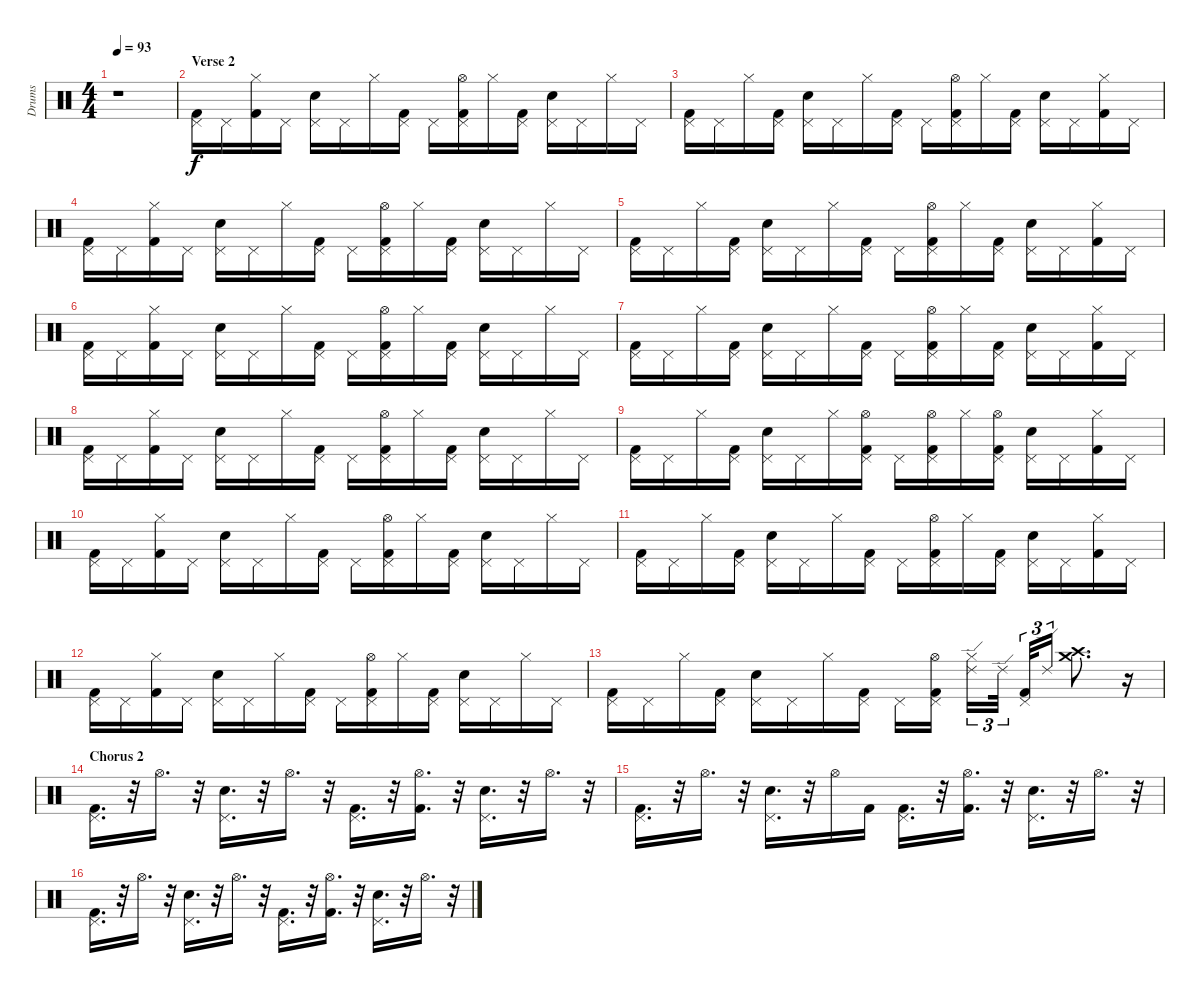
\track ("Drums" "Drums") {instrument percussion}
\staff {score}
\articulation defaults
\ts (4 4)
\tempo 93
\clef neutral
\ks c
r.1{dy f} |
\section ("" "Verse 2")
("Pedal Hi-Hat (hit)" "Kick (hit) 2").16 "Pedal Hi-Hat (hit)".16 ("Hi-Hat (closed)" "Kick (hit) 2").16 "Pedal Hi-Hat (hit)".16 ("Pedal Hi-Hat (hit)" "Snare (hit) 2").16 "Pedal Hi-Hat (hit)".16 "Hi-Hat (closed)".16 ("Pedal Hi-Hat (hit)" "Kick (hit) 2").16 "Pedal Hi-Hat (hit)".16 ("Pedal Hi-Hat (hit)" "Kick (hit) 2" "Hi-Hat (open)").16 "Hi-Hat (closed)".16 ("Pedal Hi-Hat (hit)" "Kick (hit) 2").16 ("Pedal Hi-Hat (hit)" "Snare (hit) 2").16 "Pedal Hi-Hat (hit)".16 "Hi-Hat (closed)".16 "Pedal Hi-Hat (hit)".16 |
("Pedal Hi-Hat (hit)" "Kick (hit) 2").16 "Pedal Hi-Hat (hit)".16 "Hi-Hat (closed)".16 ("Pedal Hi-Hat (hit)" "Kick (hit) 2").16 ("Pedal Hi-Hat (hit)" "Snare (hit) 2").16 "Pedal Hi-Hat (hit)".16 "Hi-Hat (closed)".16 ("Pedal Hi-Hat (hit)" "Kick (hit) 2").16 "Pedal Hi-Hat (hit)".16 ("Pedal Hi-Hat (hit)" "Kick (hit) 2" "Hi-Hat (open)").16 "Hi-Hat (closed)".16 ("Pedal Hi-Hat (hit)" "Kick (hit) 2").16 ("Pedal Hi-Hat (hit)" "Snare (hit) 2").16 "Pedal Hi-Hat (hit)".16 ("Hi-Hat (closed)" "Kick (hit) 2").16 "Pedal Hi-Hat (hit)".16 |
("Pedal Hi-Hat (hit)" "Kick (hit) 2").16 "Pedal Hi-Hat (hit)".16 ("Hi-Hat (closed)" "Kick (hit) 2").16 "Pedal Hi-Hat (hit)".16 ("Pedal Hi-Hat (hit)" "Snare (hit) 2").16 "Pedal Hi-Hat (hit)".16 "Hi-Hat (closed)".16 ("Pedal Hi-Hat (hit)" "Kick (hit) 2").16 "Pedal Hi-Hat (hit)".16 ("Pedal Hi-Hat (hit)" "Kick (hit) 2" "Hi-Hat (open)").16 "Hi-Hat (closed)".16 ("Pedal Hi-Hat (hit)" "Kick (hit) 2").16 ("Pedal Hi-Hat (hit)" "Snare (hit) 2").16 "Pedal Hi-Hat (hit)".16 "Hi-Hat (closed)".16 "Pedal Hi-Hat (hit)".16 |
("Pedal Hi-Hat (hit)" "Kick (hit) 2").16 "Pedal Hi-Hat (hit)".16 "Hi-Hat (closed)".16 ("Pedal Hi-Hat (hit)" "Kick (hit) 2").16 ("Pedal Hi-Hat (hit)" "Snare (hit) 2").16 "Pedal Hi-Hat (hit)".16 "Hi-Hat (closed)".16 ("Pedal Hi-Hat (hit)" "Kick (hit) 2").16 "Pedal Hi-Hat (hit)".16 ("Pedal Hi-Hat (hit)" "Kick (hit) 2" "Hi-Hat (open)").16 "Hi-Hat (closed)".16 ("Pedal Hi-Hat (hit)" "Kick (hit) 2").16 ("Pedal Hi-Hat (hit)" "Snare (hit) 2").16 "Pedal Hi-Hat (hit)".16 ("Hi-Hat (closed)" "Kick (hit) 2").16 "Pedal Hi-Hat (hit)".16 |
("Pedal Hi-Hat (hit)" "Kick (hit) 2").16 "Pedal Hi-Hat (hit)".16 ("Hi-Hat (closed)" "Kick (hit) 2").16 "Pedal Hi-Hat (hit)".16 ("Pedal Hi-Hat (hit)" "Snare (hit) 2").16 "Pedal Hi-Hat (hit)".16 "Hi-Hat (closed)".16 ("Pedal Hi-Hat (hit)" "Kick (hit) 2").16 "Pedal Hi-Hat (hit)".16 ("Pedal Hi-Hat (hit)" "Kick (hit) 2" "Hi-Hat (open)").16 "Hi-Hat (closed)".16 ("Pedal Hi-Hat (hit)" "Kick (hit) 2").16 ("Pedal Hi-Hat (hit)" "Snare (hit) 2").16 "Pedal Hi-Hat (hit)".16 "Hi-Hat (closed)".16 "Pedal Hi-Hat (hit)".16 |
("Pedal Hi-Hat (hit)" "Kick (hit) 2").16 "Pedal Hi-Hat (hit)".16 "Hi-Hat (closed)".16 ("Pedal Hi-Hat (hit)" "Kick (hit) 2").16 ("Pedal Hi-Hat (hit)" "Snare (hit) 2").16 "Pedal Hi-Hat (hit)".16 "Hi-Hat (closed)".16 ("Pedal Hi-Hat (hit)" "Kick (hit) 2").16 "Pedal Hi-Hat (hit)".16 ("Pedal Hi-Hat (hit)" "Kick (hit) 2" "Hi-Hat (open)").16 "Hi-Hat (closed)".16 ("Pedal Hi-Hat (hit)" "Kick (hit) 2").16 ("Pedal Hi-Hat (hit)" "Snare (hit) 2").16 "Pedal Hi-Hat (hit)".16 ("Hi-Hat (closed)" "Kick (hit) 2").16 "Pedal Hi-Hat (hit)".16 |
("Pedal Hi-Hat (hit)" "Kick (hit) 2").16 "Pedal Hi-Hat (hit)".16 ("Hi-Hat (closed)" "Kick (hit) 2").16 "Pedal Hi-Hat (hit)".16 ("Pedal Hi-Hat (hit)" "Snare (hit) 2").16 "Pedal Hi-Hat (hit)".16 "Hi-Hat (closed)".16 ("Pedal Hi-Hat (hit)" "Kick (hit) 2").16 "Pedal Hi-Hat (hit)".16 ("Pedal Hi-Hat (hit)" "Kick (hit) 2" "Hi-Hat (open)").16 "Hi-Hat (closed)".16 ("Pedal Hi-Hat (hit)" "Kick (hit) 2").16 ("Pedal Hi-Hat (hit)" "Snare (hit) 2").16 "Pedal Hi-Hat (hit)".16 "Hi-Hat (closed)".16 "Pedal Hi-Hat (hit)".16 |
("Pedal Hi-Hat (hit)" "Kick (hit) 2").16 "Pedal Hi-Hat (hit)".16 "Hi-Hat (closed)".16 ("Pedal Hi-Hat (hit)" "Kick (hit) 2").16 ("Pedal Hi-Hat (hit)" "Snare (hit) 2").16 "Pedal Hi-Hat (hit)".16 "Hi-Hat (closed)".16 ("Pedal Hi-Hat (hit)" "Kick (hit) 2" "Hi-Hat (open)").16 "Pedal Hi-Hat (hit)".16 ("Pedal Hi-Hat (hit)" "Kick (hit) 2" "Hi-Hat (open)").16 "Hi-Hat (closed)".16 ("Pedal Hi-Hat (hit)" "Kick (hit) 2" "Hi-Hat (open)").16 ("Pedal Hi-Hat (hit)" "Snare (hit) 2").16 "Pedal Hi-Hat (hit)".16 ("Hi-Hat (closed)" "Kick (hit) 2").16 "Pedal Hi-Hat (hit)".16 |
("Pedal Hi-Hat (hit)" "Kick (hit) 2").16 "Pedal Hi-Hat (hit)".16 ("Hi-Hat (closed)" "Kick (hit) 2").16 "Pedal Hi-Hat (hit)".16 ("Pedal Hi-Hat (hit)" "Snare (hit) 2").16 "Pedal Hi-Hat (hit)".16 "Hi-Hat (closed)".16 ("Pedal Hi-Hat (hit)" "Kick (hit) 2").16 "Pedal Hi-Hat (hit)".16 ("Pedal Hi-Hat (hit)" "Kick (hit) 2" "Hi-Hat (open)").16 "Hi-Hat (closed)".16 ("Pedal Hi-Hat (hit)" "Kick (hit) 2").16 ("Pedal Hi-Hat (hit)" "Snare (hit) 2").16 "Pedal Hi-Hat (hit)".16 "Hi-Hat (closed)".16 "Pedal Hi-Hat (hit)".16 |
("Pedal Hi-Hat (hit)" "Kick (hit) 2").16 "Pedal Hi-Hat (hit)".16 "Hi-Hat (closed)".16 ("Pedal Hi-Hat (hit)" "Kick (hit) 2").16 ("Pedal Hi-Hat (hit)" "Snare (hit) 2").16 "Pedal Hi-Hat (hit)".16 "Hi-Hat (closed)".16 ("Pedal Hi-Hat (hit)" "Kick (hit) 2").16 "Pedal Hi-Hat (hit)".16 ("Pedal Hi-Hat (hit)" "Kick (hit) 2" "Hi-Hat (open)").16 "Hi-Hat (closed)".16 ("Pedal Hi-Hat (hit)" "Kick (hit) 2").16 ("Pedal Hi-Hat (hit)" "Snare (hit) 2").16 "Pedal Hi-Hat (hit)".16 ("Hi-Hat (closed)" "Kick (hit) 2").16 "Pedal Hi-Hat (hit)".16 |
("Pedal Hi-Hat (hit)" "Kick (hit) 2").16 "Pedal Hi-Hat (hit)".16 ("Hi-Hat (closed)" "Kick (hit) 2").16 "Pedal Hi-Hat (hit)".16 ("Pedal Hi-Hat (hit)" "Snare (hit) 2").16 "Pedal Hi-Hat (hit)".16 "Hi-Hat (closed)".16 ("Pedal Hi-Hat (hit)" "Kick (hit) 2").16 "Pedal Hi-Hat (hit)".16 ("Pedal Hi-Hat (hit)" "Kick (hit) 2" "Hi-Hat (open)").16 "Hi-Hat (closed)".16 ("Pedal Hi-Hat (hit)" "Kick (hit) 2").16 ("Pedal Hi-Hat (hit)" "Snare (hit) 2").16 "Pedal Hi-Hat (hit)".16 "Hi-Hat (closed)".16 "Pedal Hi-Hat (hit)".16 |
("Pedal Hi-Hat (hit)" "Kick (hit) 2").16 "Pedal Hi-Hat (hit)".16 "Hi-Hat (closed)".16 ("Pedal Hi-Hat (hit)" "Kick (hit) 2").16 ("Pedal Hi-Hat (hit)" "Snare (hit) 2").16 "Pedal Hi-Hat (hit)".16 "Hi-Hat (closed)".16 ("Pedal Hi-Hat (hit)" "Kick (hit) 2").16 "Pedal Hi-Hat (hit)".16 ("Pedal Hi-Hat (hit)" "Kick (hit) 2" "Hi-Hat (open)").16 ("Ride (edge) 2" "Hi-Hat (closed)").16{tu (3 2)} "Ride (edge) 2".32{tu (3 2)} ("Pedal Hi-Hat (hit)" "Kick (hit) 2").32{tu (3 2)} "Ride (edge) 2".16{tu (3 2)} ("Crash medium (hit)" "Crash high (hit)").8{d} r.16 |
\section ("" "Chorus 2")
("Pedal Hi-Hat (hit)" "Kick (hit) 2").16{d} r.32 "Hi-Hat (open)".16{d} r.32 ("Pedal Hi-Hat (hit)" "Snare (hit) 2").16{d} r.32 "Hi-Hat (open)".16{d} r.32 ("Pedal Hi-Hat (hit)" "Kick (hit) 2").16{d} r.32 ("Hi-Hat (open)" "Kick (hit) 2").16{d} r.32 ("Pedal Hi-Hat (hit)" "Snare (hit) 2").16{d} r.32 "Hi-Hat (open)".16{d} r.32 |
("Pedal Hi-Hat (hit)" "Kick (hit) 2").16{d} r.32 "Hi-Hat (open)".16{d} r.32 ("Pedal Hi-Hat (hit)" "Snare (hit) 2").16{d} r.32 "Hi-Hat (open)".16 "Kick (hit) 2".16 ("Pedal Hi-Hat (hit)" "Kick (hit) 2").16{d} r.32 ("Hi-Hat (open)" "Kick (hit) 2").16{d} r.32 ("Pedal Hi-Hat (hit)" "Snare (hit) 2").16{d} r.32 "Hi-Hat (open)".16{d} r.32 |
("Pedal Hi-Hat (hit)" "Kick (hit) 2").16{d} r.32 "Hi-Hat (open)".16{d} r.32 ("Pedal Hi-Hat (hit)" "Snare (hit) 2").16{d} r.32 "Hi-Hat (open)".16{d} r.32 ("Pedal Hi-Hat (hit)" "Kick (hit) 2").16{d} r.32 ("Hi-Hat (open)" "Kick (hit) 2").16{d} r.32 ("Pedal Hi-Hat (hit)" "Snare (hit) 2").16{d} r.32 "Hi-Hat (open)".16{d} r.32
